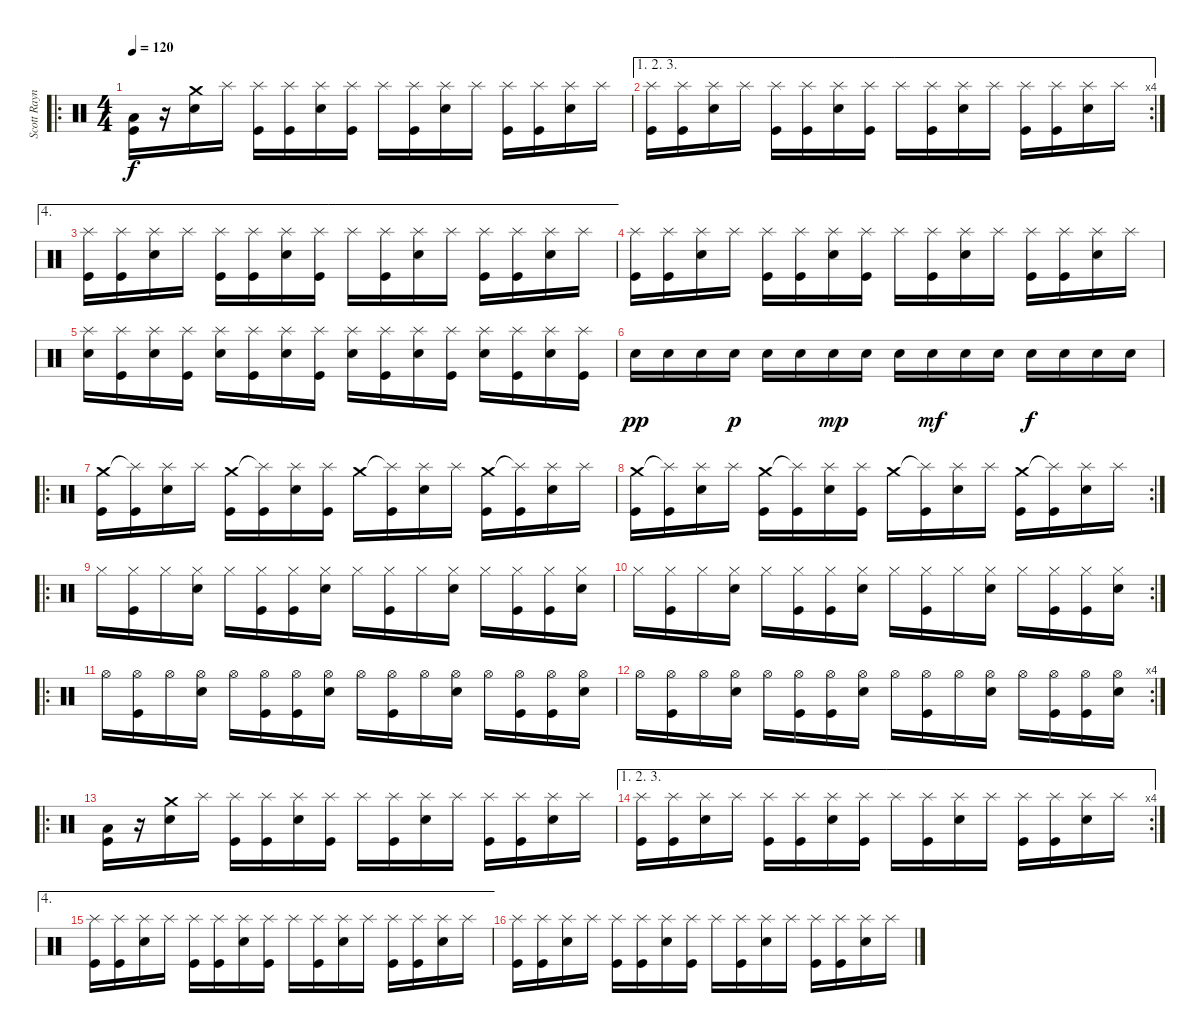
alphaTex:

\track ("Scott Raynor" "Scott Rayn") {instrument percussion}
\staff {score}
\articulation defaults
\ro
\ts (4 4)
\tempo 120
\clef neutral
\ks c
("Low Tom (hit)" "Kick (hit)").16{dy f} r.16 ("Crash medium (hit)" "Snare (hit) 2").16 "Splash (hit)".16 ("Splash (hit)" "Kick (hit)").16 ("Splash (hit)" "Kick (hit)").16 ("Splash (hit)" "Snare (hit) 2").16 ("Splash (hit)" "Kick (hit)").16 "Splash (hit)".16 ("Splash (hit)" "Kick (hit)").16 ("Splash (hit)" "Snare (hit) 2").16 "Splash (hit)".16 ("Splash (hit)" "Kick (hit)").16 ("Splash (hit)" "Kick (hit)").16 ("Splash (hit)" "Snare (hit) 2").16 "Splash (hit)".16 |
\ae (1 2 3)
\rc 4
("Splash (hit)" "Kick (hit)").16 ("Splash (hit)" "Kick (hit)").16 ("Splash (hit)" "Snare (hit) 2").16 "Splash (hit)".16 ("Splash (hit)" "Kick (hit)").16 ("Splash (hit)" "Kick (hit)").16 ("Splash (hit)" "Snare (hit) 2").16 ("Splash (hit)" "Kick (hit)").16 "Splash (hit)".16 ("Splash (hit)" "Kick (hit)").16 ("Splash (hit)" "Snare (hit) 2").16 "Splash (hit)".16 ("Splash (hit)" "Kick (hit)").16 ("Splash (hit)" "Kick (hit)").16 ("Splash (hit)" "Snare (hit) 2").16 "Splash (hit)".16 |
\ae 4
("Splash (hit)" "Kick (hit)").16 ("Splash (hit)" "Kick (hit)").16 ("Splash (hit)" "Snare (hit) 2").16 "Splash (hit)".16 ("Splash (hit)" "Kick (hit)").16 ("Splash (hit)" "Kick (hit)").16 ("Splash (hit)" "Snare (hit) 2").16 ("Splash (hit)" "Kick (hit)").16 "Splash (hit)".16 ("Splash (hit)" "Kick (hit)").16 ("Splash (hit)" "Snare (hit) 2").16 "Splash (hit)".16 ("Splash (hit)" "Kick (hit)").16 ("Splash (hit)" "Kick (hit)").16 ("Splash (hit)" "Snare (hit) 2").16 "Splash (hit)".16 |
("Splash (hit)" "Kick (hit)").16 ("Splash (hit)" "Kick (hit)").16 ("Splash (hit)" "Snare (hit) 2").16 "Splash (hit)".16 ("Splash (hit)" "Kick (hit)").16 ("Splash (hit)" "Kick (hit)").16 ("Splash (hit)" "Snare (hit) 2").16 ("Splash (hit)" "Kick (hit)").16 "Splash (hit)".16 ("Splash (hit)" "Kick (hit)").16 ("Splash (hit)" "Snare (hit) 2").16 "Splash (hit)".16 ("Splash (hit)" "Kick (hit)").16 ("Splash (hit)" "Kick (hit)").16 ("Splash (hit)" "Snare (hit) 2").16 "Splash (hit)".16 |
("Splash (hit)" "Snare (hit) 2").16 ("Splash (hit)" "Kick (hit)").16 ("Splash (hit)" "Snare (hit) 2").16 ("Splash (hit)" "Kick (hit)").16 ("Splash (hit)" "Snare (hit) 2").16 ("Splash (hit)" "Kick (hit)").16 ("Splash (hit)" "Snare (hit) 2").16 ("Splash (hit)" "Kick (hit)").16 ("Splash (hit)" "Snare (hit) 2").16 ("Splash (hit)" "Kick (hit)").16 ("Splash (hit)" "Snare (hit) 2").16 ("Splash (hit)" "Kick (hit)").16 ("Splash (hit)" "Snare (hit) 2").16 ("Splash (hit)" "Kick (hit)").16 ("Splash (hit)" "Snare (hit) 2").16 ("Splash (hit)" "Kick (hit)").16 |
"Snare (hit) 2".16{dy pp} "Snare (hit) 2".16 "Snare (hit) 2".16 "Snare (hit) 2".16{dy p} "Snare (hit) 2".16 "Snare (hit) 2".16 "Snare (hit) 2".16{dy mp} "Snare (hit) 2".16 "Snare (hit) 2".16 "Snare (hit) 2".16{dy mf} "Snare (hit) 2".16 "Snare (hit) 2".16 "Snare (hit) 2".16{dy f} "Snare (hit) 2".16 "Snare (hit) 2".16 "Snare (hit) 2".16 |
\ro
("Crash medium (hit)" "Kick (hit)").16 ("Splash (hit)"{t} "Kick (hit)").16 ("Splash (hit)" "Snare (hit) 2").16 "Splash (hit)".16 ("Crash medium (hit)" "Kick (hit)").16 ("Splash (hit)"{t} "Kick (hit)").16 ("Splash (hit)" "Snare (hit) 2").16 ("Splash (hit)" "Kick (hit)").16 "Crash medium (hit)".16 ("Splash (hit)"{t} "Kick (hit)").16 ("Splash (hit)" "Snare (hit) 2").16 "Splash (hit)".16 ("Crash medium (hit)" "Kick (hit)").16 ("Splash (hit)"{t} "Kick (hit)").16 ("Splash (hit)" "Snare (hit) 2").16 "Splash (hit)".16 |
\rc 2
("Crash medium (hit)" "Kick (hit)").16 ("Splash (hit)"{t} "Kick (hit)").16 ("Splash (hit)" "Snare (hit) 2").16 "Splash (hit)".16 ("Crash medium (hit)" "Kick (hit)").16 ("Splash (hit)"{t} "Kick (hit)").16 ("Splash (hit)" "Snare (hit) 2").16 ("Splash (hit)" "Kick (hit)").16 "Crash medium (hit)".16 ("Splash (hit)"{t} "Kick (hit)").16 ("Splash (hit)" "Snare (hit) 2").16 "Splash (hit)".16 ("Crash medium (hit)" "Kick (hit)").16 ("Splash (hit)"{t} "Kick (hit)").16 ("Splash (hit)" "Snare (hit) 2").16 "Splash (hit)".16 |
\ro "Hi-Hat (closed)".16
("Hi-Hat (closed)" "Kick (hit)").16 "Hi-Hat (closed)".16 ("Hi-Hat (closed)" "Snare (hit) 2").16 "Hi-Hat (closed)".16 ("Hi-Hat (closed)" "Kick (hit)").16 ("Hi-Hat (closed)" "Kick (hit)").16 ("Hi-Hat (closed)" "Snare (hit) 2").16 "Hi-Hat (closed)".16 ("Hi-Hat (closed)" "Kick (hit)").16 "Hi-Hat (closed)".16 ("Hi-Hat (closed)" "Snare (hit) 2").16 "Hi-Hat (closed)".16 ("Hi-Hat (closed)" "Kick (hit)").16 ("Hi-Hat (closed)" "Kick (hit)").16 ("Hi-Hat (closed)" "Snare (hit) 2").16 |
\rc 2 "Hi-Hat (closed)".16
("Hi-Hat (closed)" "Kick (hit)").16 "Hi-Hat (closed)".16 ("Hi-Hat (closed)" "Snare (hit) 2").16 "Hi-Hat (closed)".16 ("Hi-Hat (closed)" "Kick (hit)").16 ("Hi-Hat (closed)" "Kick (hit)").16 ("Hi-Hat (closed)" "Snare (hit) 2").16 "Hi-Hat (closed)".16 ("Hi-Hat (closed)" "Kick (hit)").16 "Hi-Hat (closed)".16 ("Hi-Hat (closed)" "Snare (hit) 2").16 "Hi-Hat (closed)".16 ("Hi-Hat (closed)" "Kick (hit)").16 ("Hi-Hat (closed)" "Kick (hit)").16 ("Hi-Hat (closed)" "Snare (hit) 2").16 |
\ro "Hi-Hat (open)".16
("Hi-Hat (open)" "Kick (hit)").16 "Hi-Hat (open)".16 ("Hi-Hat (open)" "Snare (hit) 2").16 "Hi-Hat (open)".16 ("Hi-Hat (open)" "Kick (hit)").16 ("Hi-Hat (open)" "Kick (hit)").16 ("Hi-Hat (open)" "Snare (hit) 2").16 "Hi-Hat (open)".16 ("Hi-Hat (open)" "Kick (hit)").16 "Hi-Hat (open)".16 ("Hi-Hat (open)" "Snare (hit) 2").16 "Hi-Hat (open)".16 ("Hi-Hat (open)" "Kick (hit)").16 ("Hi-Hat (open)" "Kick (hit)").16 ("Hi-Hat (open)" "Snare (hit) 2").16 |
\rc 4 "Hi-Hat (open)".16
("Hi-Hat (open)" "Kick (hit)").16 "Hi-Hat (open)".16 ("Hi-Hat (open)" "Snare (hit) 2").16 "Hi-Hat (open)".16 ("Hi-Hat (open)" "Kick (hit)").16 ("Hi-Hat (open)" "Kick (hit)").16 ("Hi-Hat (open)" "Snare (hit) 2").16 "Hi-Hat (open)".16 ("Hi-Hat (open)" "Kick (hit)").16 "Hi-Hat (open)".16 ("Hi-Hat (open)" "Snare (hit) 2").16 "Hi-Hat (open)".16 ("Hi-Hat (open)" "Kick (hit)").16 ("Hi-Hat (open)" "Kick (hit)").16 ("Hi-Hat (open)" "Snare (hit) 2").16 |
\ro
("Low Tom (hit)" "Kick (hit)").16 r.16 ("Crash medium (hit)" "Snare (hit) 2").16 "Splash (hit)".16 ("Splash (hit)" "Kick (hit)").16 ("Splash (hit)" "Kick (hit)").16 ("Splash (hit)" "Snare (hit) 2").16 ("Splash (hit)" "Kick (hit)").16 "Splash (hit)".16 ("Splash (hit)" "Kick (hit)").16 ("Splash (hit)" "Snare (hit) 2").16 "Splash (hit)".16 ("Splash (hit)" "Kick (hit)").16 ("Splash (hit)" "Kick (hit)").16 ("Splash (hit)" "Snare (hit) 2").16 "Splash (hit)".16 |
\ae (1 2 3)
\rc 4
("Splash (hit)" "Kick (hit)").16 ("Splash (hit)" "Kick (hit)").16 ("Splash (hit)" "Snare (hit) 2").16 "Splash (hit)".16 ("Splash (hit)" "Kick (hit)").16 ("Splash (hit)" "Kick (hit)").16 ("Splash (hit)" "Snare (hit) 2").16 ("Splash (hit)" "Kick (hit)").16 "Splash (hit)".16 ("Splash (hit)" "Kick (hit)").16 ("Splash (hit)" "Snare (hit) 2").16 "Splash (hit)".16 ("Splash (hit)" "Kick (hit)").16 ("Splash (hit)" "Kick (hit)").16 ("Splash (hit)" "Snare (hit) 2").16 "Splash (hit)".16 |
\ae 4
("Splash (hit)" "Kick (hit)").16 ("Splash (hit)" "Kick (hit)").16 ("Splash (hit)" "Snare (hit) 2").16 "Splash (hit)".16 ("Splash (hit)" "Kick (hit)").16 ("Splash (hit)" "Kick (hit)").16 ("Splash (hit)" "Snare (hit) 2").16 ("Splash (hit)" "Kick (hit)").16 "Splash (hit)".16 ("Splash (hit)" "Kick (hit)").16 ("Splash (hit)" "Snare (hit) 2").16 "Splash (hit)".16 ("Splash (hit)" "Kick (hit)").16 ("Splash (hit)" "Kick (hit)").16 ("Splash (hit)" "Snare (hit) 2").16 "Splash (hit)".16 |
("Splash (hit)" "Kick (hit)").16 ("Splash (hit)" "Kick (hit)").16 ("Splash (hit)" "Snare (hit) 2").16 "Splash (hit)".16 ("Splash (hit)" "Kick (hit)").16 ("Splash (hit)" "Kick (hit)").16 ("Splash (hit)" "Snare (hit) 2").16 ("Splash (hit)" "Kick (hit)").16 "Splash (hit)".16 ("Splash (hit)" "Kick (hit)").16 ("Splash (hit)" "Snare (hit) 2").16 "Splash (hit)".16 ("Splash (hit)" "Kick (hit)").16 ("Splash (hit)" "Kick (hit)").16 ("Splash (hit)" "Snare (hit) 2").16 "Splash (hit)".16
